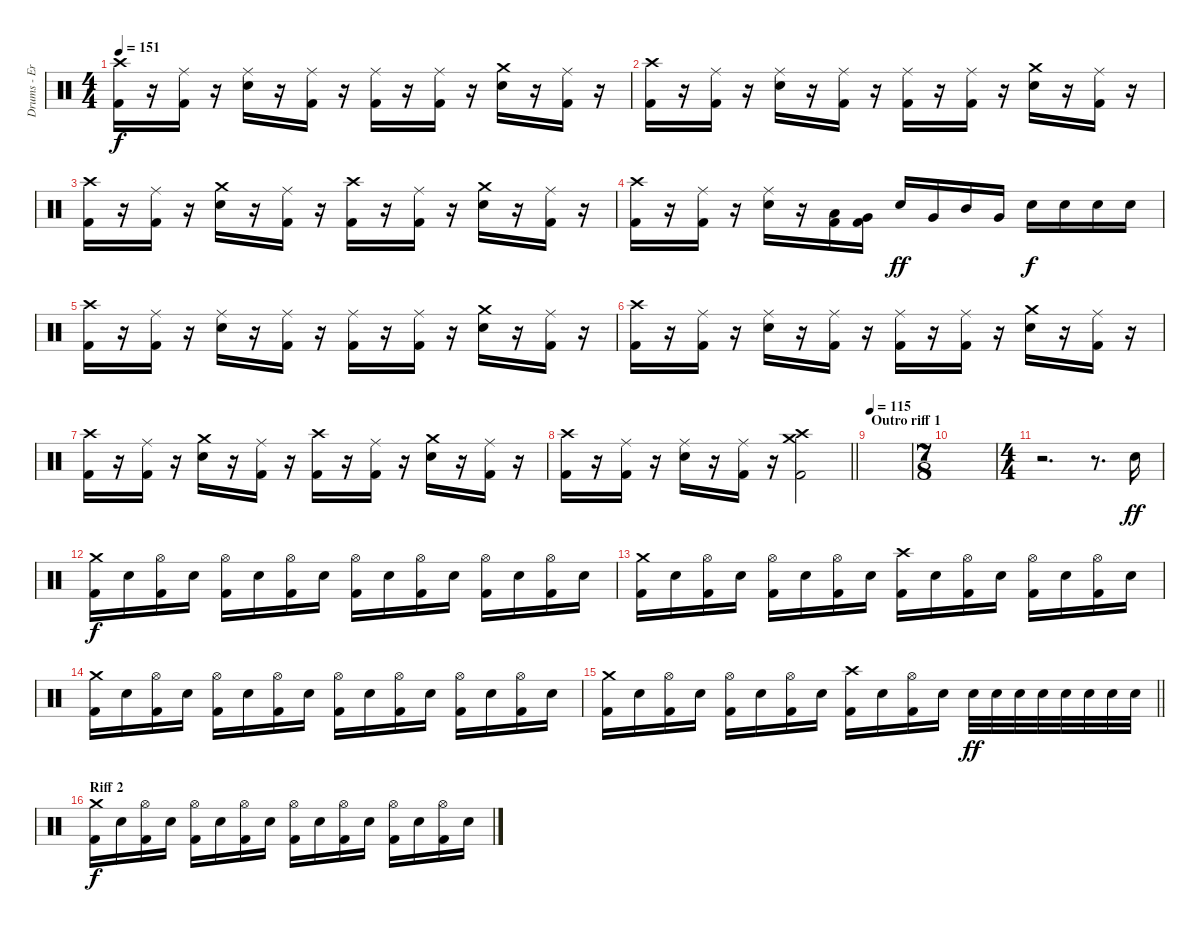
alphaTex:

\track ("Drums - Erik Sandin" "Drums - Er") {instrument percussion}
\staff {score}
\articulation defaults
\ts (4 4)
\tempo 151
\clef neutral
\ks c
("Crash high (hit)" "Kick (hit) 2").16{dy f} r.16 ("Ride (middle)" "Kick (hit) 2").16 r.16 ("Ride (middle)" "Electric Snare (hit)").16 r.16 ("Ride (middle)" "Kick (hit) 2").16 r.16 ("Ride (middle)" "Kick (hit) 2").16 r.16 ("Ride (middle)" "Kick (hit) 2").16 r.16 ("Crash medium (hit)" "Electric Snare (hit)").16 r.16 ("Ride (middle)" "Kick (hit) 2").16 r.16 |
("Crash high (hit)" "Kick (hit) 2").16 r.16 ("Ride (middle)" "Kick (hit) 2").16 r.16 ("Ride (middle)" "Electric Snare (hit)").16 r.16 ("Ride (middle)" "Kick (hit) 2").16 r.16 ("Ride (middle)" "Kick (hit) 2").16 r.16 ("Ride (middle)" "Kick (hit) 2").16 r.16 ("Crash medium (hit)" "Electric Snare (hit)").16 r.16 ("Ride (middle)" "Kick (hit) 2").16 r.16 |
("Crash high (hit)" "Kick (hit) 2").16 r.16 ("Ride (middle)" "Kick (hit) 2").16 r.16 ("Crash medium (hit)" "Electric Snare (hit)").16 r.16 ("Ride (middle)" "Kick (hit) 2").16 r.16 ("Crash high (hit)" "Kick (hit) 2").16 r.16 ("Ride (middle)" "Kick (hit) 2").16 r.16 ("Crash medium (hit)" "Electric Snare (hit)").16 r.16 ("Ride (middle)" "Kick (hit) 2").16 r.16 |
("Crash high (hit)" "Kick (hit) 2").16 r.16 ("Ride (middle)" "Kick (hit) 2").16 r.16 ("Ride (middle)" "Electric Snare (hit)").16 r.16 ("Low Tom (hit)" "Kick (hit) 2").16 ("Very Low Tom (hit)" "Kick (hit) 2").16 "Electric Snare (hit)".16{dy ff} "Very Low Tom (hit)".16 "Mid Tom (hit)".16 "Very Low Tom (hit)".16 "Electric Snare (hit)".16{dy f} "Electric Snare (hit)".16 "Electric Snare (hit)".16 "Electric Snare (hit)".16 |
("Crash high (hit)" "Kick (hit) 2").16 r.16 ("Ride (middle)" "Kick (hit) 2").16 r.16 ("Ride (middle)" "Electric Snare (hit)").16 r.16 ("Ride (middle)" "Kick (hit) 2").16 r.16 ("Ride (middle)" "Kick (hit) 2").16 r.16 ("Ride (middle)" "Kick (hit) 2").16 r.16 ("Crash medium (hit)" "Electric Snare (hit)").16 r.16 ("Ride (middle)" "Kick (hit) 2").16 r.16 |
("Crash high (hit)" "Kick (hit) 2").16 r.16 ("Ride (middle)" "Kick (hit) 2").16 r.16 ("Ride (middle)" "Electric Snare (hit)").16 r.16 ("Ride (middle)" "Kick (hit) 2").16 r.16 ("Ride (middle)" "Kick (hit) 2").16 r.16 ("Ride (middle)" "Kick (hit) 2").16 r.16 ("Crash medium (hit)" "Electric Snare (hit)").16 r.16 ("Ride (middle)" "Kick (hit) 2").16 r.16 |
("Crash high (hit)" "Kick (hit) 2").16 r.16 ("Ride (middle)" "Kick (hit) 2").16 r.16 ("Crash medium (hit)" "Electric Snare (hit)").16 r.16 ("Ride (middle)" "Kick (hit) 2").16 r.16 ("Crash high (hit)" "Kick (hit) 2").16 r.16 ("Ride (middle)" "Kick (hit) 2").16 r.16 ("Crash medium (hit)" "Electric Snare (hit)").16 r.16 ("Ride (middle)" "Kick (hit) 2").16 r.16 |
\barLineRight lightlight
("Crash high (hit)" "Kick (hit) 2").16 r.16 ("Ride (middle)" "Kick (hit) 2").16 r.16 ("Ride (middle)" "Electric Snare (hit)").16 r.16 ("Ride (middle)" "Kick (hit) 2").16 r.16 ("Crash medium (hit)" "Crash high (hit)" "Kick (hit) 2").2 |
\section ("" "Outro riff 1")
\tempo 115
|
\ts (7 8)
|
\ts (4 4)
r.2{d} r.8{d} "Electric Snare (hit)".16{dy ff} |
("Crash medium (hit)" "Kick (hit) 2").16{dy f} "Electric Snare (hit)".16 ("Hi-Hat (open)" "Kick (hit) 2").16 "Electric Snare (hit)".16 ("Hi-Hat (open)" "Kick (hit) 2").16 "Electric Snare (hit)".16 ("Hi-Hat (open)" "Kick (hit) 2").16 "Electric Snare (hit)".16 ("Hi-Hat (open)" "Kick (hit) 2").16 "Electric Snare (hit)".16 ("Hi-Hat (open)" "Kick (hit) 2").16 "Electric Snare (hit)".16 ("Hi-Hat (open)" "Kick (hit) 2").16 "Electric Snare (hit)".16 ("Hi-Hat (open)" "Kick (hit) 2").16 "Electric Snare (hit)".16 |
("Crash medium (hit)" "Kick (hit) 2").16 "Electric Snare (hit)".16 ("Hi-Hat (open)" "Kick (hit) 2").16 "Electric Snare (hit)".16 ("Hi-Hat (open)" "Kick (hit) 2").16 "Electric Snare (hit)".16 ("Hi-Hat (open)" "Kick (hit) 2").16 "Electric Snare (hit)".16 ("Crash high (hit)" "Kick (hit) 2").16 "Electric Snare (hit)".16 ("Hi-Hat (open)" "Kick (hit) 2").16 "Electric Snare (hit)".16 ("Hi-Hat (open)" "Kick (hit) 2").16 "Electric Snare (hit)".16 ("Hi-Hat (open)" "Kick (hit) 2").16 "Electric Snare (hit)".16 |
("Crash medium (hit)" "Kick (hit) 2").16 "Electric Snare (hit)".16 ("Hi-Hat (open)" "Kick (hit) 2").16 "Electric Snare (hit)".16 ("Hi-Hat (open)" "Kick (hit) 2").16 "Electric Snare (hit)".16 ("Hi-Hat (open)" "Kick (hit) 2").16 "Electric Snare (hit)".16 ("Hi-Hat (open)" "Kick (hit) 2").16 "Electric Snare (hit)".16 ("Hi-Hat (open)" "Kick (hit) 2").16 "Electric Snare (hit)".16 ("Hi-Hat (open)" "Kick (hit) 2").16 "Electric Snare (hit)".16 ("Hi-Hat (open)" "Kick (hit) 2").16 "Electric Snare (hit)".16 |
\barLineRight lightlight
("Crash medium (hit)" "Kick (hit) 2").16 "Electric Snare (hit)".16 ("Hi-Hat (open)" "Kick (hit) 2").16 "Electric Snare (hit)".16 ("Hi-Hat (open)" "Kick (hit) 2").16 "Electric Snare (hit)".16 ("Hi-Hat (open)" "Kick (hit) 2").16 "Electric Snare (hit)".16 ("Crash high (hit)" "Kick (hit) 2").16 "Electric Snare (hit)".16 ("Hi-Hat (open)" "Kick (hit) 2").16 "Electric Snare (hit)".16 "Electric Snare (hit)".32{dy ff} "Electric Snare (hit)".32 "Electric Snare (hit)".32 "Electric Snare (hit)".32 "Electric Snare (hit)".32 "Electric Snare (hit)".32 "Electric Snare (hit)".32 "Electric Snare (hit)".32 |
\section ("" "Riff 2")
("Crash medium (hit)" "Kick (hit) 2").16{dy f} "Electric Snare (hit)".16 ("Hi-Hat (open)" "Kick (hit) 2").16 "Electric Snare (hit)".16 ("Hi-Hat (open)" "Kick (hit) 2").16 "Electric Snare (hit)".16 ("Hi-Hat (open)" "Kick (hit) 2").16 "Electric Snare (hit)".16 ("Hi-Hat (open)" "Kick (hit) 2").16 "Electric Snare (hit)".16 ("Hi-Hat (open)" "Kick (hit) 2").16 "Electric Snare (hit)".16 ("Hi-Hat (open)" "Kick (hit) 2").16 "Electric Snare (hit)".16 ("Hi-Hat (open)" "Kick (hit) 2").16 "Electric Snare (hit)".16
